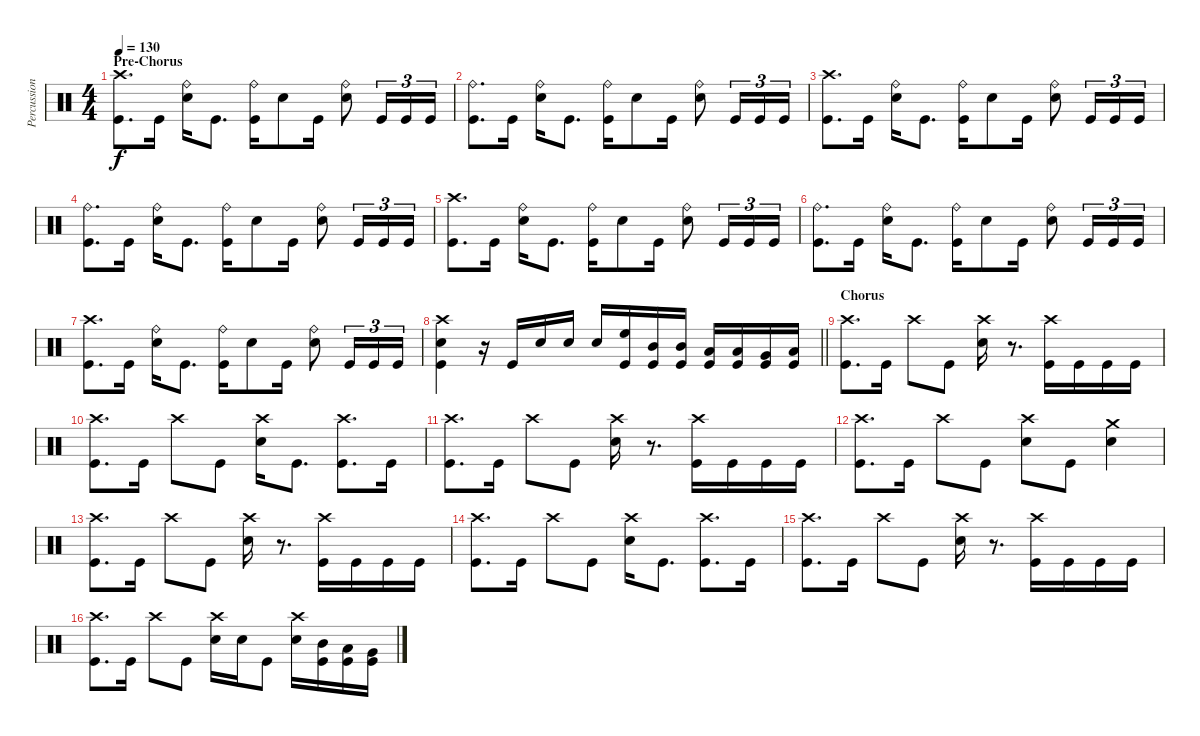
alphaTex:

\track ("Percussion" "Percussion") {instrument percussion}
\staff {score}
\articulation defaults
\ts (4 4)
\section ("" "Pre-Chorus")
\tempo 130
\clef neutral
\ks c
("Crash high (hit)" "Kick (hit)").8{d dy f} "Kick (hit)".16 ("Ride (bell)" "Snare (hit) 2").16 "Kick (hit)".8{d} ("Ride (bell)" "Kick (hit)").16 "Snare (hit) 2".8 "Kick (hit)".16 ("Ride (bell)" "Snare (hit) 2").8 "Kick (hit)".16{tu (3 2)} "Kick (hit)".16{tu (3 2)} "Kick (hit)".16{tu (3 2)} |
("Ride (bell)" "Kick (hit)").8{d} "Kick (hit)".16 ("Ride (bell)" "Snare (hit) 2").16 "Kick (hit)".8{d} ("Ride (bell)" "Kick (hit)").16 "Snare (hit) 2".8 "Kick (hit)".16 ("Ride (bell)" "Snare (hit) 2").8 "Kick (hit)".16{tu (3 2)} "Kick (hit)".16{tu (3 2)} "Kick (hit)".16{tu (3 2)} |
("Crash high (hit)" "Kick (hit)").8{d} "Kick (hit)".16 ("Ride (bell)" "Snare (hit) 2").16 "Kick (hit)".8{d} ("Ride (bell)" "Kick (hit)").16 "Snare (hit) 2".8 "Kick (hit)".16 ("Ride (bell)" "Snare (hit) 2").8 "Kick (hit)".16{tu (3 2)} "Kick (hit)".16{tu (3 2)} "Kick (hit)".16{tu (3 2)} |
("Ride (bell)" "Kick (hit)").8{d} "Kick (hit)".16 ("Ride (bell)" "Snare (hit) 2").16 "Kick (hit)".8{d} ("Ride (bell)" "Kick (hit)").16 "Snare (hit) 2".8 "Kick (hit)".16 ("Ride (bell)" "Snare (hit) 2").8 "Kick (hit)".16{tu (3 2)} "Kick (hit)".16{tu (3 2)} "Kick (hit)".16{tu (3 2)} |
("Crash high (hit)" "Kick (hit)").8{d} "Kick (hit)".16 ("Ride (bell)" "Snare (hit) 2").16 "Kick (hit)".8{d} ("Ride (bell)" "Kick (hit)").16 "Snare (hit) 2".8 "Kick (hit)".16 ("Ride (bell)" "Snare (hit) 2").8 "Kick (hit)".16{tu (3 2)} "Kick (hit)".16{tu (3 2)} "Kick (hit)".16{tu (3 2)} |
("Ride (bell)" "Kick (hit)").8{d} "Kick (hit)".16 ("Ride (bell)" "Snare (hit) 2").16 "Kick (hit)".8{d} ("Ride (bell)" "Kick (hit)").16 "Snare (hit) 2".8 "Kick (hit)".16 ("Ride (bell)" "Snare (hit) 2").8 "Kick (hit)".16{tu (3 2)} "Kick (hit)".16{tu (3 2)} "Kick (hit)".16{tu (3 2)} |
("Crash high (hit)" "Kick (hit)").8{d} "Kick (hit)".16 ("Ride (bell)" "Snare (hit) 2").16 "Kick (hit)".8{d} ("Ride (bell)" "Kick (hit)").16 "Snare (hit) 2".8 "Kick (hit)".16 ("Ride (bell)" "Snare (hit) 2").8 "Kick (hit)".16{tu (3 2)} "Kick (hit)".16{tu (3 2)} "Kick (hit)".16{tu (3 2)} |
\barLineRight lightlight
("Crash high (hit)" "Snare (hit) 2" "Kick (hit)").4 r.16 "Kick (hit)".16 "Snare (hit) 2".16 "Snare (hit) 2".16 "Snare (hit) 2".16 ("High Floor Tom (hit)" "Kick (hit)").16 ("Mid Tom (hit)" "Kick (hit)").16 ("Mid Tom (hit)" "Kick (hit)").16 ("Low Tom (hit)" "Kick (hit)").16 ("Low Tom (hit)" "Kick (hit)").16 ("Very Low Tom (hit)" "Kick (hit)").16 ("Low Floor Tom (hit)" "Kick (hit)").16 |
\section ("" "Chorus")
("Crash high (hit)" "Kick (hit)").8{d} "Kick (hit)".16 "Crash high (hit)".8 "Kick (hit)".8 ("Crash high (hit)" "Snare (hit) 2").16 r.8{d} ("Crash high (hit)" "Kick (hit)").16 "Kick (hit)".16 "Kick (hit)".16 "Kick (hit)".16 |
("Crash high (hit)" "Kick (hit)").8{d} "Kick (hit)".16 "Crash high (hit)".8 "Kick (hit)".8 ("Crash high (hit)" "Snare (hit) 2").16 "Kick (hit)".8{d} ("Crash high (hit)" "Kick (hit)").8{d} "Kick (hit)".16 |
("Crash high (hit)" "Kick (hit)").8{d} "Kick (hit)".16 "Crash high (hit)".8 "Kick (hit)".8 ("Crash high (hit)" "Snare (hit) 2").16 r.8{d} ("Crash high (hit)" "Kick (hit)").16 "Kick (hit)".16 "Kick (hit)".16 "Kick (hit)".16 |
("Crash high (hit)" "Kick (hit)").8{d} "Kick (hit)".16 "Crash high (hit)".8 "Kick (hit)".8 ("Crash high (hit)" "Snare (hit) 2").8 "Kick (hit)".8 ("Crash medium (hit)" "Snare (hit) 2").4 |
("Crash high (hit)" "Kick (hit)").8{d} "Kick (hit)".16 "Crash high (hit)".8 "Kick (hit)".8 ("Crash high (hit)" "Snare (hit) 2").16 r.8{d} ("Crash high (hit)" "Kick (hit)").16 "Kick (hit)".16 "Kick (hit)".16 "Kick (hit)".16 |
("Crash high (hit)" "Kick (hit)").8{d} "Kick (hit)".16 "Crash high (hit)".8 "Kick (hit)".8 ("Crash high (hit)" "Snare (hit) 2").16 "Kick (hit)".8{d} ("Crash high (hit)" "Kick (hit)").8{d} "Kick (hit)".16 |
("Crash high (hit)" "Kick (hit)").8{d} "Kick (hit)".16 "Crash high (hit)".8 "Kick (hit)".8 ("Crash high (hit)" "Snare (hit) 2").16 r.8{d} ("Crash high (hit)" "Kick (hit)").16 "Kick (hit)".16 "Kick (hit)".16 "Kick (hit)".16 |
("Crash high (hit)" "Kick (hit)").8{d} "Kick (hit)".16 "Crash high (hit)".8 "Kick (hit)".8 ("Crash high (hit)" "Snare (hit) 2").16 "Snare (hit) 2".16 "Kick (hit)".8 ("Crash high (hit)" "Snare (hit) 2").16 ("Mid Tom (hit)" "Kick (hit)").16 ("Low Tom (hit)" "Kick (hit)").16 ("Very Low Tom (hit)" "Kick (hit)").16
